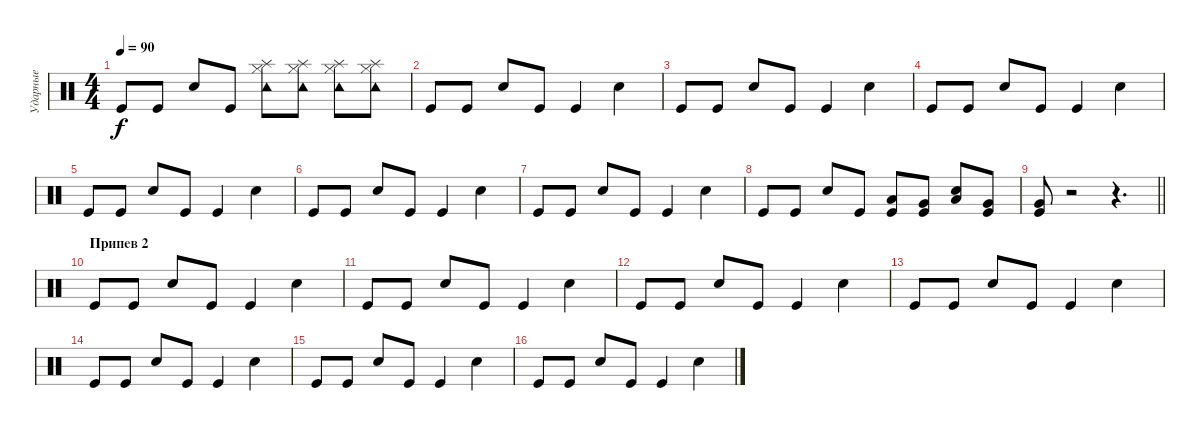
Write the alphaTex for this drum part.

\track ("Ударные" "Ударные") {instrument percussion}
\staff
\articulation defaults
\ts (4 4)
\tempo 90
\clef neutral
\ks c "Kick (hit)".8{dy f} "Kick (hit)".8 "Snare (hit) 2".8 "Kick (hit)".8
("Splash (hit)" "Tambourine (hit)" "Hi-Hat (closed)").8 ("Splash (hit)" "Hi-Hat (closed)" "Tambourine (hit)").8 ("Splash (hit)" "Hi-Hat (closed)" "Tambourine (hit)").8 ("Splash (hit)" "Hi-Hat (closed)" "Tambourine (hit)").8 |
"Kick (hit)".8 "Kick (hit)".8 "Snare (hit) 2".8 "Kick (hit)".8 "Kick (hit)".4 "Snare (hit) 2".4 |
"Kick (hit)".8 "Kick (hit)".8 "Snare (hit) 2".8 "Kick (hit)".8 "Kick (hit)".4 "Snare (hit) 2".4 |
"Kick (hit)".8 "Kick (hit)".8 "Snare (hit) 2".8 "Kick (hit)".8 "Kick (hit)".4 "Snare (hit) 2".4 |
"Kick (hit)".8 "Kick (hit)".8 "Snare (hit) 2".8 "Kick (hit)".8 "Kick (hit)".4 "Snare (hit) 2".4 |
"Kick (hit)".8 "Kick (hit)".8 "Snare (hit) 2".8 "Kick (hit)".8 "Kick (hit)".4 "Snare (hit) 2".4 |
"Kick (hit)".8 "Kick (hit)".8 "Snare (hit) 2".8 "Kick (hit)".8 "Kick (hit)".4 "Snare (hit) 2".4 |
"Kick (hit)".8 "Kick (hit)".8 "Snare (hit) 2".8 "Kick (hit)".8 ("Kick (hit)" "Low Floor Tom (hit)").8 ("Kick (hit)" "Very Low Tom (hit)").8 ("Snare (hit) 2" "Low Tom (hit)").8 ("Kick (hit)" "Very Low Tom (hit)").8 |
\barLineRight lightlight
("Kick (hit)" "Very Low Tom (hit)").8 r.2 r.4{d} |
\section ("" "Припев 2")
"Kick (hit)".8 "Kick (hit)".8 "Snare (hit) 2".8 "Kick (hit)".8 "Kick (hit)".4 "Snare (hit) 2".4 |
"Kick (hit)".8 "Kick (hit)".8 "Snare (hit) 2".8 "Kick (hit)".8 "Kick (hit)".4 "Snare (hit) 2".4 |
"Kick (hit)".8 "Kick (hit)".8 "Snare (hit) 2".8 "Kick (hit)".8 "Kick (hit)".4 "Snare (hit) 2".4 |
"Kick (hit)".8 "Kick (hit)".8 "Snare (hit) 2".8 "Kick (hit)".8 "Kick (hit)".4 "Snare (hit) 2".4 |
"Kick (hit)".8 "Kick (hit)".8 "Snare (hit) 2".8 "Kick (hit)".8 "Kick (hit)".4 "Snare (hit) 2".4 |
"Kick (hit)".8 "Kick (hit)".8 "Snare (hit) 2".8 "Kick (hit)".8 "Kick (hit)".4 "Snare (hit) 2".4 |
"Kick (hit)".8 "Kick (hit)".8 "Snare (hit) 2".8 "Kick (hit)".8 "Kick (hit)".4 "Snare (hit) 2".4
